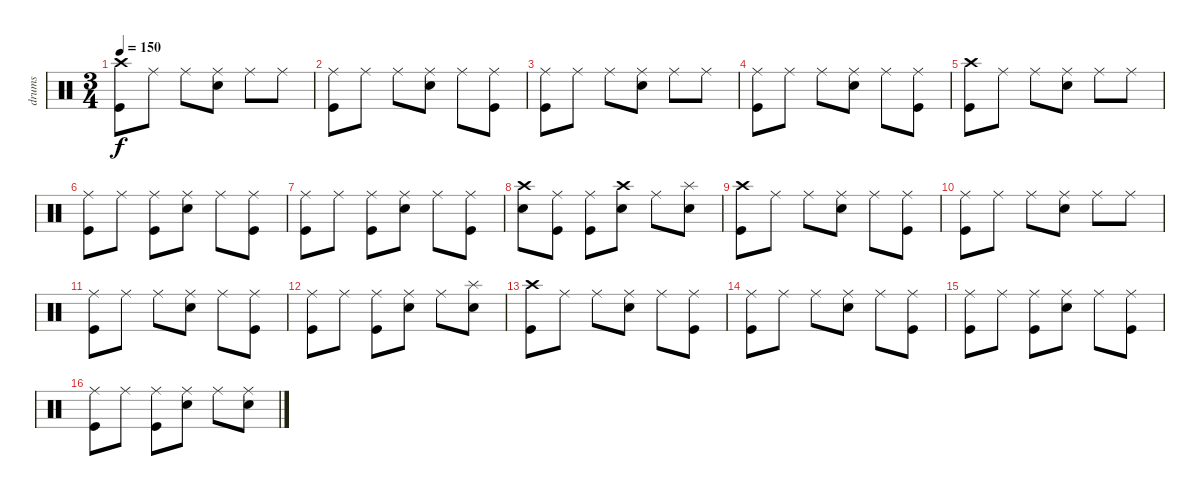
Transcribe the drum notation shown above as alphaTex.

\track ("drums" "drums") {instrument percussion}
\staff {score}
\articulation defaults
\ts (3 4)
\tempo 150
\clef neutral
\ks c
("Crash high (hit)" "Kick (hit)").8{dy f} "Ride (middle)".8 "Ride (middle)".8 ("Ride (middle)" "Snare (hit) 2").8 "Ride (middle)".8 "Ride (middle)".8 |
("Ride (middle)" "Kick (hit)").8 "Ride (middle)".8 "Ride (middle)".8 ("Ride (middle)" "Snare (hit) 2").8 "Ride (middle)".8 ("Ride (middle)" "Kick (hit)").8 |
("Ride (middle)" "Kick (hit)").8 "Ride (middle)".8 "Ride (middle)".8 ("Ride (middle)" "Snare (hit) 2").8 "Ride (middle)".8 "Ride (middle)".8 |
("Ride (middle)" "Kick (hit)").8 "Ride (middle)".8 "Ride (middle)".8 ("Ride (middle)" "Snare (hit) 2").8 "Ride (middle)".8 ("Ride (middle)" "Kick (hit)").8 |
("Crash high (hit)" "Kick (hit)").8 "Ride (middle)".8 "Ride (middle)".8 ("Ride (middle)" "Snare (hit) 2").8 "Ride (middle)".8 "Ride (middle)".8 |
("Ride (middle)" "Kick (hit)").8 "Ride (middle)".8 ("Ride (middle)" "Kick (hit)").8 ("Ride (middle)" "Snare (hit) 2").8 "Ride (middle)".8 ("Ride (middle)" "Kick (hit)").8 |
("Ride (middle)" "Kick (hit)").8 "Ride (middle)".8 ("Ride (middle)" "Kick (hit)").8 ("Ride (middle)" "Snare (hit) 2").8 "Ride (middle)".8 ("Ride (middle)" "Kick (hit)").8 |
("Crash high (hit)" "Snare (hit) 2").8 ("Ride (middle)" "Kick (hit)").8 ("Ride (middle)" "Kick (hit)").8 ("Crash high (hit)" "Snare (hit) 2").8 "Ride (middle)".8 ("Splash (hit)" "Snare (hit) 2").8 |
("Crash high (hit)" "Kick (hit)").8 "Ride (middle)".8 "Ride (middle)".8 ("Ride (middle)" "Snare (hit) 2").8 "Ride (middle)".8 ("Ride (middle)" "Kick (hit)").8 |
("Ride (middle)" "Kick (hit)").8 "Ride (middle)".8 "Ride (middle)".8 ("Ride (middle)" "Snare (hit) 2").8 "Ride (middle)".8 "Ride (middle)".8 |
("Ride (middle)" "Kick (hit)").8 "Ride (middle)".8 "Ride (middle)".8 ("Ride (middle)" "Snare (hit) 2").8 "Ride (middle)".8 ("Ride (middle)" "Kick (hit)").8 |
("Ride (middle)" "Kick (hit)").8 "Ride (middle)".8 ("Ride (middle)" "Kick (hit)").8 ("Ride (middle)" "Snare (hit) 2").8 "Ride (middle)".8 ("Splash (hit)" "Snare (hit) 2").8 |
("Crash high (hit)" "Kick (hit)").8 "Ride (middle)".8 "Ride (middle)".8 ("Ride (middle)" "Snare (hit) 2").8 "Ride (middle)".8 ("Ride (middle)" "Kick (hit)").8 |
("Ride (middle)" "Kick (hit)").8 "Ride (middle)".8 "Ride (middle)".8 ("Ride (middle)" "Snare (hit) 2").8 "Ride (middle)".8 ("Ride (middle)" "Kick (hit)").8 |
("Ride (middle)" "Kick (hit)").8 "Ride (middle)".8 ("Ride (middle)" "Kick (hit)").8 ("Ride (middle)" "Snare (hit) 2").8 "Ride (middle)".8 ("Ride (middle)" "Kick (hit)").8 |
("Ride (middle)" "Kick (hit)").8 "Ride (middle)".8 ("Ride (middle)" "Kick (hit)").8 ("Ride (middle)" "Snare (hit) 2").8 "Ride (middle)".8 ("Ride (middle)" "Snare (hit) 2").8
